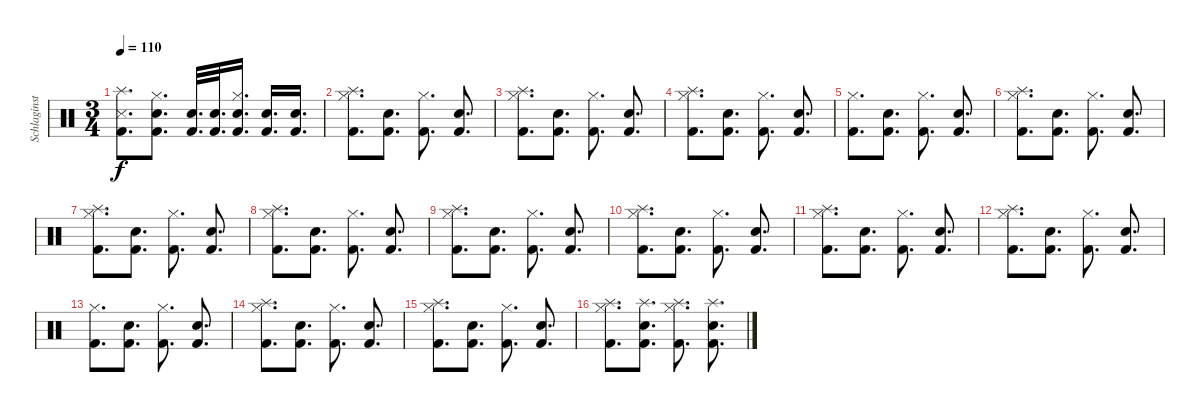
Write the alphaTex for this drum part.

\track ("Schlaginstrumente - Auswahl" "Schlaginst") {instrument percussion}
\staff {score}
\articulation defaults
\ts (3 4)
\tempo 110
\clef neutral
\ks c
("Splash (hit)" "Snare (side stick) 3" "Kick (hit) 2").8{d dy f} ("Hi-Hat (closed)" "Electric Snare (hit)" "Kick (hit) 2").8{d} ("Electric Snare (hit)" "Kick (hit) 2").32{d} ("Electric Snare (hit)" "Kick (hit) 2").32{d} ("Hi-Hat (closed)" "Snare (hit) 2" "Kick (hit) 2").16{d} ("Electric Snare (hit)" "Kick (hit) 2").16{d} ("Electric Snare (hit)" "Kick (hit) 2").16{d} |
("Splash (hit)" "Hi-Hat (closed)" "Kick (hit) 2").8{d} ("Electric Snare (hit)" "Kick (hit) 2").8{d} ("Hi-Hat (closed)" "Kick (hit) 2").8{d} ("Electric Snare (hit)" "Kick (hit) 2").8{d} |
("Splash (hit)" "Hi-Hat (closed)" "Kick (hit) 2").8{d} ("Electric Snare (hit)" "Kick (hit) 2").8{d} ("Hi-Hat (closed)" "Kick (hit) 2").8{d} ("Electric Snare (hit)" "Kick (hit) 2").8{d} |
("Splash (hit)" "Hi-Hat (closed)" "Kick (hit) 2").8{d} ("Electric Snare (hit)" "Kick (hit) 2").8{d} ("Hi-Hat (closed)" "Kick (hit) 2").8{d} ("Electric Snare (hit)" "Kick (hit) 2").8{d} |
("Hi-Hat (closed)" "Kick (hit) 2").8{d} ("Electric Snare (hit)" "Kick (hit) 2").8{d} ("Hi-Hat (closed)" "Kick (hit) 2").8{d} ("Electric Snare (hit)" "Kick (hit) 2").8{d} |
("Splash (hit)" "Hi-Hat (closed)" "Kick (hit) 2").8{d} ("Electric Snare (hit)" "Kick (hit) 2").8{d} ("Hi-Hat (closed)" "Kick (hit) 2").8{d} ("Electric Snare (hit)" "Kick (hit) 2").8{d} |
("Splash (hit)" "Hi-Hat (closed)" "Kick (hit) 2").8{d} ("Electric Snare (hit)" "Kick (hit) 2").8{d} ("Hi-Hat (closed)" "Kick (hit) 2").8{d} ("Electric Snare (hit)" "Kick (hit) 2").8{d} |
("Splash (hit)" "Hi-Hat (closed)" "Kick (hit) 2").8{d} ("Electric Snare (hit)" "Kick (hit) 2").8{d} ("Hi-Hat (closed)" "Kick (hit) 2").8{d} ("Electric Snare (hit)" "Kick (hit) 2").8{d} |
("Splash (hit)" "Hi-Hat (closed)" "Kick (hit) 2").8{d} ("Electric Snare (hit)" "Kick (hit) 2").8{d} ("Hi-Hat (closed)" "Kick (hit) 2").8{d} ("Electric Snare (hit)" "Kick (hit) 2").8{d} |
("Splash (hit)" "Hi-Hat (closed)" "Kick (hit) 2").8{d} ("Electric Snare (hit)" "Kick (hit) 2").8{d} ("Hi-Hat (closed)" "Kick (hit) 2").8{d} ("Electric Snare (hit)" "Kick (hit) 2").8{d} |
("Splash (hit)" "Hi-Hat (closed)" "Kick (hit) 2").8{d} ("Electric Snare (hit)" "Kick (hit) 2").8{d} ("Hi-Hat (closed)" "Kick (hit) 2").8{d} ("Electric Snare (hit)" "Kick (hit) 2").8{d} |
("Splash (hit)" "Hi-Hat (closed)" "Kick (hit) 2").8{d} ("Electric Snare (hit)" "Kick (hit) 2").8{d} ("Hi-Hat (closed)" "Kick (hit) 2").8{d} ("Electric Snare (hit)" "Kick (hit) 2").8{d} |
("Hi-Hat (closed)" "Kick (hit) 2").8{d} ("Electric Snare (hit)" "Kick (hit) 2").8{d} ("Hi-Hat (closed)" "Kick (hit) 2").8{d} ("Electric Snare (hit)" "Kick (hit) 2").8{d} |
("Splash (hit)" "Hi-Hat (closed)" "Kick (hit) 2").8{d} ("Electric Snare (hit)" "Kick (hit) 2").8{d} ("Hi-Hat (closed)" "Kick (hit) 2").8{d} ("Electric Snare (hit)" "Kick (hit) 2").8{d} |
("Splash (hit)" "Hi-Hat (closed)" "Kick (hit) 2").8{d} ("Electric Snare (hit)" "Kick (hit) 2").8{d} ("Hi-Hat (closed)" "Kick (hit) 2").8{d} ("Electric Snare (hit)" "Kick (hit) 2").8{d} |
("Splash (hit)" "Hi-Hat (closed)" "Kick (hit) 2").8{d} ("Splash (hit)" "Electric Snare (hit)" "Kick (hit) 2").8{d} ("Splash (hit)" "Hi-Hat (closed)" "Kick (hit) 2").8{d} ("Splash (hit)" "Electric Snare (hit)" "Kick (hit) 2").8{d}
